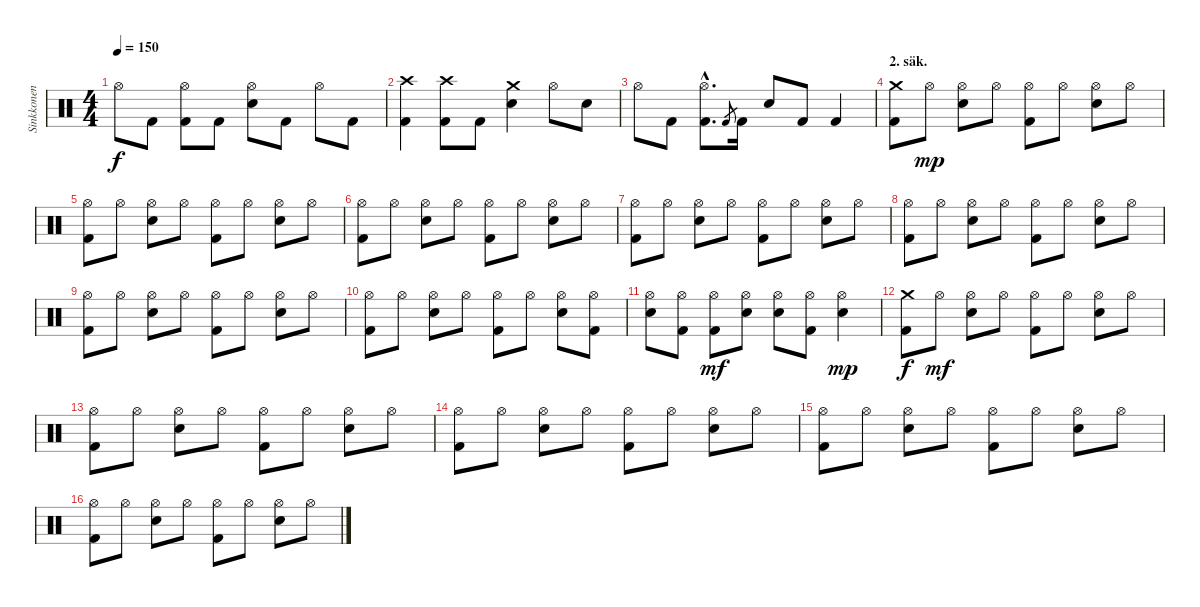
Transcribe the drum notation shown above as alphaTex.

\track ("Sinkkonen" "Sinkkonen") {instrument percussion}
\staff {score}
\articulation defaults
\ts (4 4)
\tempo 150
\clef neutral
\ks c "Hi-Hat (open)".8{dy f} "Kick (hit) 2".8
("Kick (hit) 2" "Hi-Hat (open)").8 "Kick (hit) 2".8 ("Hi-Hat (open)" "Snare (hit) 2").8 "Kick (hit) 2".8 "Hi-Hat (open)".8 "Kick (hit) 2".8 |
("Kick (hit) 2" "Crash high (hit)").4 ("Kick (hit) 2" "Crash high (hit)").8 "Kick (hit) 2".8 ("Crash medium (hit)" "Snare (hit) 2").4 "Hi-Hat (open)".8 "Snare (hit) 2".8 |
"Hi-Hat (open)".8 "Kick (hit) 2".8 ("Kick (hit) 2"{hac} "Hi-Hat (open)"{hac}).8{d} "Kick (hit) 2".8{gr} "Kick (hit) 2".16 "Snare (hit) 2".8 "Kick (hit) 2".8 "Kick (hit) 2".4 |
\section ("" "2. säk.")
("Kick (hit) 2" "Crash medium (hit)").8 "Hi-Hat (open)".8{dy mp} ("Hi-Hat (open)" "Snare (hit) 2").8 "Hi-Hat (open)".8 ("Kick (hit) 2" "Hi-Hat (open)").8 "Hi-Hat (open)".8 ("Hi-Hat (open)" "Snare (hit) 2").8 "Hi-Hat (open)".8 |
("Kick (hit) 2" "Hi-Hat (open)").8 "Hi-Hat (open)".8 ("Hi-Hat (open)" "Snare (hit) 2").8 "Hi-Hat (open)".8 ("Kick (hit) 2" "Hi-Hat (open)").8 "Hi-Hat (open)".8 ("Hi-Hat (open)" "Snare (hit) 2").8 "Hi-Hat (open)".8 |
("Kick (hit) 2" "Hi-Hat (open)").8 "Hi-Hat (open)".8 ("Hi-Hat (open)" "Snare (hit) 2").8 "Hi-Hat (open)".8 ("Kick (hit) 2" "Hi-Hat (open)").8 "Hi-Hat (open)".8 ("Hi-Hat (open)" "Snare (hit) 2").8 "Hi-Hat (open)".8 |
("Kick (hit) 2" "Hi-Hat (open)").8 "Hi-Hat (open)".8 ("Hi-Hat (open)" "Snare (hit) 2").8 "Hi-Hat (open)".8 ("Kick (hit) 2" "Hi-Hat (open)").8 "Hi-Hat (open)".8 ("Hi-Hat (open)" "Snare (hit) 2").8 "Hi-Hat (open)".8 |
("Kick (hit) 2" "Hi-Hat (open)").8 "Hi-Hat (open)".8 ("Hi-Hat (open)" "Snare (hit) 2").8 "Hi-Hat (open)".8 ("Kick (hit) 2" "Hi-Hat (open)").8 "Hi-Hat (open)".8 ("Hi-Hat (open)" "Snare (hit) 2").8 "Hi-Hat (open)".8 |
("Kick (hit) 2" "Hi-Hat (open)").8 "Hi-Hat (open)".8 ("Hi-Hat (open)" "Snare (hit) 2").8 "Hi-Hat (open)".8 ("Kick (hit) 2" "Hi-Hat (open)").8 "Hi-Hat (open)".8 ("Hi-Hat (open)" "Snare (hit) 2").8 "Hi-Hat (open)".8 |
("Kick (hit) 2" "Hi-Hat (open)").8 "Hi-Hat (open)".8 ("Hi-Hat (open)" "Snare (hit) 2").8 "Hi-Hat (open)".8 ("Kick (hit) 2" "Hi-Hat (open)").8 "Hi-Hat (open)".8 ("Hi-Hat (open)" "Snare (hit) 2").8 ("Kick (hit) 2" "Hi-Hat (open)").8 |
("Hi-Hat (open)" "Snare (hit) 2").8 ("Kick (hit) 2" "Hi-Hat (open)").8 ("Kick (hit) 2" "Hi-Hat (open)").8{dy mf} ("Hi-Hat (open)" "Snare (hit) 2").8 ("Hi-Hat (open)" "Snare (hit) 2").8 ("Kick (hit) 2" "Hi-Hat (open)").8 ("Hi-Hat (open)" "Snare (hit) 2").4{dy mp} |
("Kick (hit) 2" "Crash medium (hit)").8{dy f} "Hi-Hat (open)".8{dy mf} ("Hi-Hat (open)" "Snare (hit) 2").8 "Hi-Hat (open)".8 ("Kick (hit) 2" "Hi-Hat (open)").8 "Hi-Hat (open)".8 ("Hi-Hat (open)" "Snare (hit) 2").8 "Hi-Hat (open)".8 |
("Kick (hit) 2" "Hi-Hat (open)").8 "Hi-Hat (open)".8 ("Hi-Hat (open)" "Snare (hit) 2").8 "Hi-Hat (open)".8 ("Kick (hit) 2" "Hi-Hat (open)").8 "Hi-Hat (open)".8 ("Hi-Hat (open)" "Snare (hit) 2").8 "Hi-Hat (open)".8 |
("Kick (hit) 2" "Hi-Hat (open)").8 "Hi-Hat (open)".8 ("Hi-Hat (open)" "Snare (hit) 2").8 "Hi-Hat (open)".8 ("Kick (hit) 2" "Hi-Hat (open)").8 "Hi-Hat (open)".8 ("Hi-Hat (open)" "Snare (hit) 2").8 "Hi-Hat (open)".8 |
("Kick (hit) 2" "Hi-Hat (open)").8 "Hi-Hat (open)".8 ("Hi-Hat (open)" "Snare (hit) 2").8 "Hi-Hat (open)".8 ("Kick (hit) 2" "Hi-Hat (open)").8 "Hi-Hat (open)".8 ("Hi-Hat (open)" "Snare (hit) 2").8 "Hi-Hat (open)".8 |
("Kick (hit) 2" "Hi-Hat (open)").8 "Hi-Hat (open)".8 ("Hi-Hat (open)" "Snare (hit) 2").8 "Hi-Hat (open)".8 ("Kick (hit) 2" "Hi-Hat (open)").8 "Hi-Hat (open)".8 ("Hi-Hat (open)" "Snare (hit) 2").8 "Hi-Hat (open)".8
